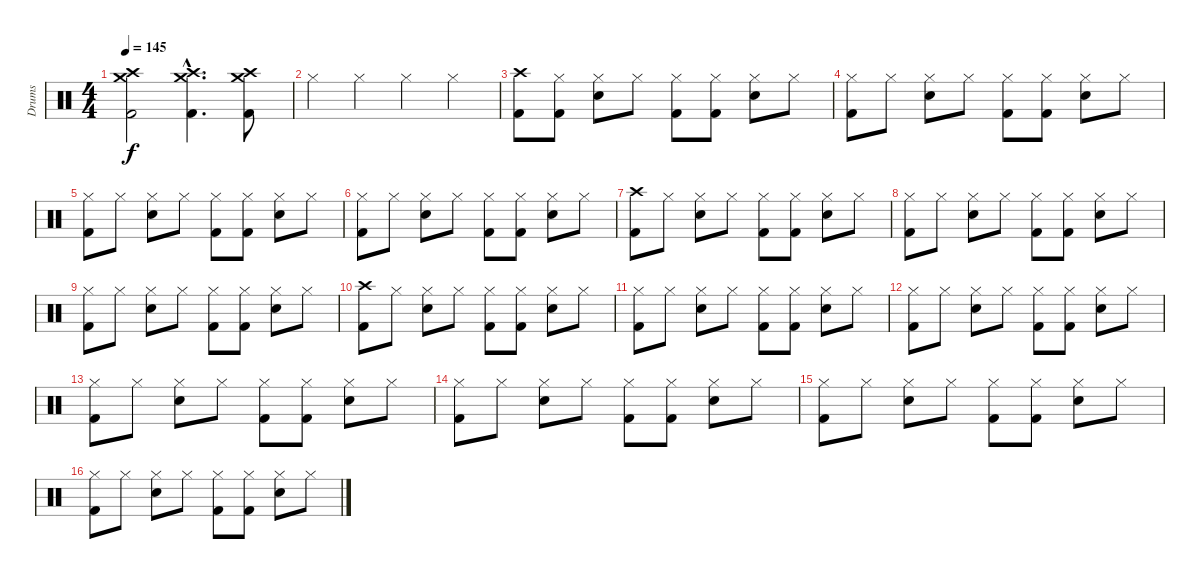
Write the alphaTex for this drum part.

\track ("Drums" "Drums") {instrument percussion}
\staff {score}
\articulation defaults
\ts (4 4)
\tempo 145
\clef neutral
\ks c
("Crash high (hit)" "Crash medium (hit)" "Kick (hit) 2").2{dy f} ("Crash high (hit)"{hac} "Crash medium (hit)"{hac} "Kick (hit) 2"{hac}).4{d} ("Crash high (hit)" "Crash medium (hit)" "Kick (hit) 2").8 |
"Hi-Hat (closed)".4 "Hi-Hat (closed)".4 "Hi-Hat (closed)".4 "Hi-Hat (closed)".4 |
("Crash high (hit)" "Kick (hit) 2").8 ("Hi-Hat (closed)" "Kick (hit) 2").8 ("Hi-Hat (closed)" "Electric Snare (hit)").8 "Hi-Hat (closed)".8 ("Hi-Hat (closed)" "Kick (hit) 2").8 ("Hi-Hat (closed)" "Kick (hit) 2").8 ("Hi-Hat (closed)" "Electric Snare (hit)").8 "Hi-Hat (closed)".8 |
("Hi-Hat (closed)" "Kick (hit) 2").8 "Hi-Hat (closed)".8 ("Hi-Hat (closed)" "Electric Snare (hit)").8 "Hi-Hat (closed)".8 ("Hi-Hat (closed)" "Kick (hit) 2").8 ("Hi-Hat (closed)" "Kick (hit) 2").8 ("Hi-Hat (closed)" "Electric Snare (hit)").8 "Hi-Hat (closed)".8 |
("Hi-Hat (closed)" "Kick (hit) 2").8 "Hi-Hat (closed)".8 ("Hi-Hat (closed)" "Electric Snare (hit)").8 "Hi-Hat (closed)".8 ("Hi-Hat (closed)" "Kick (hit) 2").8 ("Hi-Hat (closed)" "Kick (hit) 2").8 ("Hi-Hat (closed)" "Electric Snare (hit)").8 "Hi-Hat (closed)".8 |
("Hi-Hat (closed)" "Kick (hit) 2").8 "Hi-Hat (closed)".8 ("Hi-Hat (closed)" "Electric Snare (hit)").8 "Hi-Hat (closed)".8 ("Hi-Hat (closed)" "Kick (hit) 2").8 ("Hi-Hat (closed)" "Kick (hit) 2").8 ("Hi-Hat (closed)" "Electric Snare (hit)").8 "Hi-Hat (closed)".8 |
("Crash high (hit)" "Kick (hit) 2").8 "Hi-Hat (closed)".8 ("Hi-Hat (closed)" "Electric Snare (hit)").8 "Hi-Hat (closed)".8 ("Hi-Hat (closed)" "Kick (hit) 2").8 ("Hi-Hat (closed)" "Kick (hit) 2").8 ("Hi-Hat (closed)" "Electric Snare (hit)").8 "Hi-Hat (closed)".8 |
("Hi-Hat (closed)" "Kick (hit) 2").8 "Hi-Hat (closed)".8 ("Hi-Hat (closed)" "Electric Snare (hit)").8 "Hi-Hat (closed)".8 ("Hi-Hat (closed)" "Kick (hit) 2").8 ("Hi-Hat (closed)" "Kick (hit) 2").8 ("Hi-Hat (closed)" "Electric Snare (hit)").8 "Hi-Hat (closed)".8 |
("Hi-Hat (closed)" "Kick (hit) 2").8 "Hi-Hat (closed)".8 ("Hi-Hat (closed)" "Electric Snare (hit)").8 "Hi-Hat (closed)".8 ("Hi-Hat (closed)" "Kick (hit) 2").8 ("Hi-Hat (closed)" "Kick (hit) 2").8 ("Hi-Hat (closed)" "Electric Snare (hit)").8 "Hi-Hat (closed)".8 |
("Crash high (hit)" "Kick (hit) 2").8 "Hi-Hat (closed)".8 ("Hi-Hat (closed)" "Electric Snare (hit)").8 "Hi-Hat (closed)".8 ("Hi-Hat (closed)" "Kick (hit) 2").8 ("Hi-Hat (closed)" "Kick (hit) 2").8 ("Hi-Hat (closed)" "Electric Snare (hit)").8 "Hi-Hat (closed)".8 |
("Hi-Hat (closed)" "Kick (hit) 2").8 "Hi-Hat (closed)".8 ("Hi-Hat (closed)" "Electric Snare (hit)").8 "Hi-Hat (closed)".8 ("Hi-Hat (closed)" "Kick (hit) 2").8 ("Hi-Hat (closed)" "Kick (hit) 2").8 ("Hi-Hat (closed)" "Electric Snare (hit)").8 "Hi-Hat (closed)".8 |
("Hi-Hat (closed)" "Kick (hit) 2").8 "Hi-Hat (closed)".8 ("Hi-Hat (closed)" "Electric Snare (hit)").8 "Hi-Hat (closed)".8 ("Hi-Hat (closed)" "Kick (hit) 2").8 ("Hi-Hat (closed)" "Kick (hit) 2").8 ("Hi-Hat (closed)" "Electric Snare (hit)").8 "Hi-Hat (closed)".8 |
("Hi-Hat (closed)" "Kick (hit) 2").8 "Hi-Hat (closed)".8 ("Hi-Hat (closed)" "Electric Snare (hit)").8 "Hi-Hat (closed)".8 ("Hi-Hat (closed)" "Kick (hit) 2").8 ("Hi-Hat (closed)" "Kick (hit) 2").8 ("Hi-Hat (closed)" "Electric Snare (hit)").8 "Hi-Hat (closed)".8 |
("Hi-Hat (closed)" "Kick (hit) 2").8 "Hi-Hat (closed)".8 ("Hi-Hat (closed)" "Electric Snare (hit)").8 "Hi-Hat (closed)".8 ("Hi-Hat (closed)" "Kick (hit) 2").8 ("Hi-Hat (closed)" "Kick (hit) 2").8 ("Hi-Hat (closed)" "Electric Snare (hit)").8 "Hi-Hat (closed)".8 |
("Hi-Hat (closed)" "Kick (hit) 2").8 "Hi-Hat (closed)".8 ("Hi-Hat (closed)" "Electric Snare (hit)").8 "Hi-Hat (closed)".8 ("Hi-Hat (closed)" "Kick (hit) 2").8 ("Hi-Hat (closed)" "Kick (hit) 2").8 ("Hi-Hat (closed)" "Electric Snare (hit)").8 "Hi-Hat (closed)".8 |
("Hi-Hat (closed)" "Kick (hit) 2").8 "Hi-Hat (closed)".8 ("Hi-Hat (closed)" "Electric Snare (hit)").8 "Hi-Hat (closed)".8 ("Hi-Hat (closed)" "Kick (hit) 2").8 ("Hi-Hat (closed)" "Kick (hit) 2").8 ("Hi-Hat (closed)" "Electric Snare (hit)").8 "Hi-Hat (closed)".8
